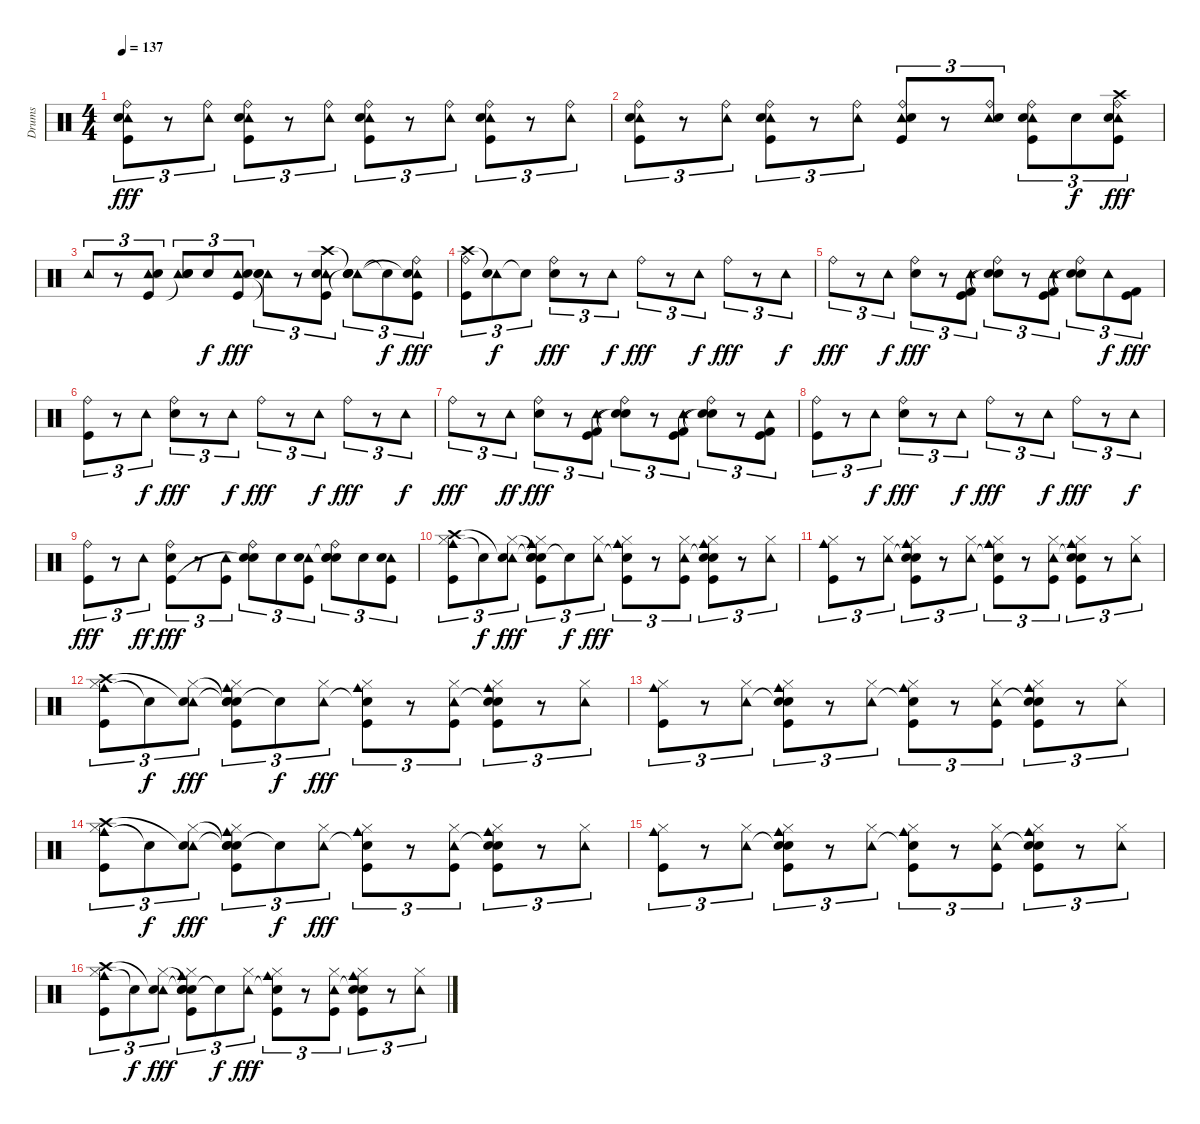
\track ("Drums" "Drums") {instrument percussion}
\staff {score}
\articulation defaults
\ts (4 4)
\tempo 137
\clef neutral
\ks c
("Tambourine (hit)" "Ride (bell)" "Electric Snare (hit)" "Kick (hit)").8{tu (3 2) dy fff} r.8{tu (3 2)} ("Tambourine (hit)" "Ride (bell)").8{tu (3 2)} ("Tambourine (hit)" "Ride (bell)" "Electric Snare (hit)" "Kick (hit)").8{tu (3 2)} r.8{tu (3 2)} ("Tambourine (hit)" "Ride (bell)").8{tu (3 2)} ("Tambourine (hit)" "Ride (bell)" "Electric Snare (hit)" "Kick (hit)").8{tu (3 2)} r.8{tu (3 2)} ("Tambourine (hit)" "Ride (bell)").8{tu (3 2)} ("Tambourine (hit)" "Ride (bell)" "Electric Snare (hit)" "Kick (hit)").8{tu (3 2)} r.8{tu (3 2)} ("Tambourine (hit)" "Ride (bell)").8{tu (3 2)} |
("Tambourine (hit)" "Ride (bell)" "Electric Snare (hit)" "Kick (hit)").8{tu (3 2)} r.8{tu (3 2)} ("Tambourine (hit)" "Ride (bell)").8{tu (3 2)} ("Tambourine (hit)" "Ride (bell)" "Electric Snare (hit)" "Kick (hit)").8{tu (3 2)} r.8{tu (3 2)} ("Tambourine (hit)" "Ride (bell)").8{tu (3 2)} ("Tambourine (hit)" "Ride (bell)" "Electric Snare (hit)" "Kick (hit)").8{tu (3 2)} r.8{tu (3 2)} ("Tambourine (hit)" "Ride (bell)" "Electric Snare (hit)").8{tu (3 2)} ("Tambourine (hit)" "Ride (bell)" "Electric Snare (hit)" "Kick (hit)").8{tu (3 2)} "Electric Snare (hit)".8{tu (3 2) dy f} ("Tambourine (hit)" "Crash high (hit)" "Ride (bell)" "Electric Snare (hit)" "Kick (hit)").8{tu (3 2) dy fff} |
"Tambourine (hit)".8{tu (3 2)} r.8{tu (3 2)} ("Tambourine (hit)" "Electric Snare (hit)" "Kick (hit)").8{tu (3 2)} ("Tambourine (hit)" "Electric Snare (hit)" "Snare (hit)"{t}).8{tu (3 2)} "Electric Snare (hit)".8{tu (3 2) dy f} ("Tambourine (hit)" "Electric Snare (hit)" "Kick (hit)").8{tu (3 2) dy fff} ("Tambourine (hit)" "Snare (hit)"{t} "Snare (hit)"{t}).8{tu (3 2)} r.8{tu (3 2)} ("Tambourine (hit)" "Crash high (hit)" "Electric Snare (hit)" "Kick (hit)").8{tu (3 2)} ("Tambourine (hit)" "Snare (hit)"{t} "Electric Snare (hit)" "Snare (hit)"{t}).8{tu (3 2)} "Snare (hit)"{t}.8{tu (3 2) dy f} ("Tambourine (hit)" "Ride (bell)" "Snare (hit)"{t} "Kick (hit)").8{tu (3 2) dy fff} |
("Ride (bell)" "Crash high (hit)" "Kick (hit)").8{tu (3 2)} ("Tambourine (hit)" "Snare (hit)"{t}).8{tu (3 2) dy f} "Snare (hit)"{t}.8{tu (3 2)} ("Ride (bell)" "Electric Snare (hit)").8{tu (3 2) dy fff} r.8{tu (3 2)} "Tambourine (hit)".8{tu (3 2) dy f} "Ride (bell)".8{tu (3 2) dy fff} r.8{tu (3 2)} "Tambourine (hit)".8{tu (3 2) dy f} "Ride (bell)".8{tu (3 2) dy fff} r.8{tu (3 2)} "Tambourine (hit)".8{tu (3 2) dy f} |
"Ride (bell)".8{tu (3 2) dy fff} r.8{tu (3 2)} "Tambourine (hit)".8{tu (3 2) dy f} ("Ride (bell)" "Electric Snare (hit)").8{tu (3 2) dy fff} r.8{tu (3 2)} ("Tambourine (hit)" "Kick (hit) 2" "Kick (hit)").8{tu (3 2)} ("Ride (bell)" "Snare (hit)"{t} "Snare (hit)"{t}).8{tu (3 2)} r.8{tu (3 2)} ("Tambourine (hit)" "Kick (hit) 2" "Kick (hit)").8{tu (3 2)} ("Ride (bell)" "Snare (hit)"{t} "Snare (hit)"{t}).8{tu (3 2)} "Tambourine (hit)".8{tu (3 2) dy f} ("Kick (hit) 2" "Kick (hit)").8{tu (3 2) dy fff} |
("Ride (bell)" "Kick (hit)").8{tu (3 2)} r.8{tu (3 2)} "Tambourine (hit)".8{tu (3 2) dy f} ("Ride (bell)" "Electric Snare (hit)").8{tu (3 2) dy fff} r.8{tu (3 2)} "Tambourine (hit)".8{tu (3 2) dy f} "Ride (bell)".8{tu (3 2) dy fff} r.8{tu (3 2)} "Tambourine (hit)".8{tu (3 2) dy f} "Ride (bell)".8{tu (3 2) dy fff} r.8{tu (3 2)} "Tambourine (hit)".8{tu (3 2) dy f} |
"Ride (bell)".8{tu (3 2) dy fff} r.8{tu (3 2)} "Tambourine (hit)".8{tu (3 2) dy ff} ("Ride (bell)" "Electric Snare (hit)").8{tu (3 2) dy fff} r.8{tu (3 2)} ("Tambourine (hit)" "Kick (hit) 2" "Kick (hit)").8{tu (3 2)} ("Ride (bell)" "Snare (hit)"{t} "Snare (hit)"{t}).8{tu (3 2)} r.8{tu (3 2)} ("Tambourine (hit)" "Kick (hit) 2" "Kick (hit)").8{tu (3 2)} ("Ride (bell)" "Snare (hit)"{t} "Snare (hit)"{t}).8{tu (3 2)} r.8{tu (3 2)} ("Tambourine (hit)" "Kick (hit) 2" "Kick (hit)").8{tu (3 2)} |
("Ride (bell)" "Kick (hit)").8{tu (3 2)} r.8{tu (3 2)} "Tambourine (hit)".8{tu (3 2) dy f} ("Ride (bell)" "Electric Snare (hit)").8{tu (3 2) dy fff} r.8{tu (3 2)} "Tambourine (hit)".8{tu (3 2) dy f} "Ride (bell)".8{tu (3 2) dy fff} r.8{tu (3 2)} "Tambourine (hit)".8{tu (3 2) dy f} "Ride (bell)".8{tu (3 2) dy fff} r.8{tu (3 2)} "Tambourine (hit)".8{tu (3 2) dy f} |
("Ride (bell)" "Kick (hit)").8{tu (3 2) dy fff} r.8{tu (3 2)} "Tambourine (hit)".8{tu (3 2) dy ff} ("Ride (bell)" "Electric Snare (hit)" "Kick (hit)").8{tu (3 2) dy fff} r.8{tu (3 2)} ("Tambourine (hit)" "Kick (hit)").8{tu (3 2)} ("Ride (bell)" "Electric Snare (hit)" "Snare (hit)"{t}).8{tu (3 2)} "Electric Snare (hit)".8{tu (3 2)} ("Tambourine (hit)" "Electric Snare (hit)" "Kick (hit)").8{tu (3 2)} ("Snare (hit)"{t} "Ride (bell)" "Electric Snare (hit)" "Snare (hit)").8{tu (3 2)} "Electric Snare (hit)".8{tu (3 2)} ("Tambourine (hit)" "Electric Snare (hit)" "Kick (hit)").8{tu (3 2)} |
("Cowbell medium (hit)" "Crash high (hit)" "Hi-Hat (closed)" "Kick (hit)").8{tu (3 2)} "Snare (hit)"{t}.8{tu (3 2) dy f} ("Tambourine (hit)" "Snare (hit)"{t} "Hi-Hat (closed)").8{tu (3 2) dy fff} ("Snare (hit)"{t} "Cowbell medium (hit)" "Snare (hit)"{t} "Hi-Hat (closed)" "Electric Snare (hit)" "Kick (hit)").8{tu (3 2)} "Snare (hit)"{t}.8{tu (3 2) dy f} ("Tambourine (hit)" "Hi-Hat (closed)").8{tu (3 2) dy fff} ("Snare (hit)"{t} "Cowbell medium (hit)" "Hi-Hat (closed)" "Kick (hit)").8{tu (3 2)} r.8{tu (3 2)} ("Tambourine (hit)" "Hi-Hat (closed)" "Kick (hit)").8{tu (3 2)} ("Snare (hit)"{t} "Cowbell medium (hit)" "Hi-Hat (closed)" "Electric Snare (hit)" "Kick (hit)").8{tu (3 2)} r.8{tu (3 2)} ("Tambourine (hit)" "Hi-Hat (closed)").8{tu (3 2)} |
("Cowbell medium (hit)" "Hi-Hat (closed)" "Kick (hit)").8{tu (3 2)} r.8{tu (3 2)} ("Tambourine (hit)" "Hi-Hat (closed)").8{tu (3 2)} ("Snare (hit)"{t} "Cowbell medium (hit)" "Hi-Hat (closed)" "Electric Snare (hit)" "Kick (hit)").8{tu (3 2)} r.8{tu (3 2)} ("Tambourine (hit)" "Hi-Hat (closed)").8{tu (3 2)} ("Snare (hit)"{t} "Cowbell medium (hit)" "Hi-Hat (closed)" "Kick (hit)").8{tu (3 2)} r.8{tu (3 2)} ("Tambourine (hit)" "Hi-Hat (closed)" "Kick (hit)").8{tu (3 2)} ("Snare (hit)"{t} "Cowbell medium (hit)" "Hi-Hat (closed)" "Electric Snare (hit)" "Kick (hit)").8{tu (3 2)} r.8{tu (3 2)} ("Tambourine (hit)" "Hi-Hat (closed)").8{tu (3 2)} |
("Cowbell medium (hit)" "Crash high (hit)" "Hi-Hat (closed)" "Kick (hit)").8{tu (3 2)} "Snare (hit)"{t}.8{tu (3 2) dy f} ("Tambourine (hit)" "Snare (hit)"{t} "Hi-Hat (closed)").8{tu (3 2) dy fff} ("Snare (hit)"{t} "Cowbell medium (hit)" "Snare (hit)"{t} "Hi-Hat (closed)" "Electric Snare (hit)" "Kick (hit)").8{tu (3 2)} "Snare (hit)"{t}.8{tu (3 2) dy f} ("Tambourine (hit)" "Hi-Hat (closed)").8{tu (3 2) dy fff} ("Snare (hit)"{t} "Cowbell medium (hit)" "Hi-Hat (closed)" "Kick (hit)").8{tu (3 2)} r.8{tu (3 2)} ("Tambourine (hit)" "Hi-Hat (closed)" "Kick (hit)").8{tu (3 2)} ("Snare (hit)"{t} "Cowbell medium (hit)" "Hi-Hat (closed)" "Electric Snare (hit)" "Kick (hit)").8{tu (3 2)} r.8{tu (3 2)} ("Tambourine (hit)" "Hi-Hat (closed)").8{tu (3 2)} |
("Cowbell medium (hit)" "Hi-Hat (closed)" "Kick (hit)").8{tu (3 2)} r.8{tu (3 2)} ("Tambourine (hit)" "Hi-Hat (closed)").8{tu (3 2)} ("Snare (hit)"{t} "Cowbell medium (hit)" "Hi-Hat (closed)" "Electric Snare (hit)" "Kick (hit)").8{tu (3 2)} r.8{tu (3 2)} ("Tambourine (hit)" "Hi-Hat (closed)").8{tu (3 2)} ("Snare (hit)"{t} "Cowbell medium (hit)" "Hi-Hat (closed)" "Kick (hit)").8{tu (3 2)} r.8{tu (3 2)} ("Tambourine (hit)" "Hi-Hat (closed)" "Kick (hit)").8{tu (3 2)} ("Snare (hit)"{t} "Cowbell medium (hit)" "Hi-Hat (closed)" "Electric Snare (hit)" "Kick (hit)").8{tu (3 2)} r.8{tu (3 2)} ("Tambourine (hit)" "Hi-Hat (closed)").8{tu (3 2)} |
("Cowbell medium (hit)" "Crash high (hit)" "Hi-Hat (closed)" "Kick (hit)").8{tu (3 2)} "Snare (hit)"{t}.8{tu (3 2) dy f} ("Tambourine (hit)" "Snare (hit)"{t} "Hi-Hat (closed)").8{tu (3 2) dy fff} ("Snare (hit)"{t} "Cowbell medium (hit)" "Snare (hit)"{t} "Hi-Hat (closed)" "Electric Snare (hit)" "Kick (hit)").8{tu (3 2)} "Snare (hit)"{t}.8{tu (3 2) dy f} ("Tambourine (hit)" "Hi-Hat (closed)").8{tu (3 2) dy fff} ("Snare (hit)"{t} "Cowbell medium (hit)" "Hi-Hat (closed)" "Kick (hit)").8{tu (3 2)} r.8{tu (3 2)} ("Tambourine (hit)" "Hi-Hat (closed)" "Kick (hit)").8{tu (3 2)} ("Snare (hit)"{t} "Cowbell medium (hit)" "Hi-Hat (closed)" "Electric Snare (hit)" "Kick (hit)").8{tu (3 2)} r.8{tu (3 2)} ("Tambourine (hit)" "Hi-Hat (closed)").8{tu (3 2)} |
("Cowbell medium (hit)" "Hi-Hat (closed)" "Kick (hit)").8{tu (3 2)} r.8{tu (3 2)} ("Tambourine (hit)" "Hi-Hat (closed)").8{tu (3 2)} ("Snare (hit)"{t} "Cowbell medium (hit)" "Hi-Hat (closed)" "Electric Snare (hit)" "Kick (hit)").8{tu (3 2)} r.8{tu (3 2)} ("Tambourine (hit)" "Hi-Hat (closed)").8{tu (3 2)} ("Snare (hit)"{t} "Cowbell medium (hit)" "Hi-Hat (closed)" "Kick (hit)").8{tu (3 2)} r.8{tu (3 2)} ("Tambourine (hit)" "Hi-Hat (closed)" "Kick (hit)").8{tu (3 2)} ("Snare (hit)"{t} "Cowbell medium (hit)" "Hi-Hat (closed)" "Electric Snare (hit)" "Kick (hit)").8{tu (3 2)} r.8{tu (3 2)} ("Tambourine (hit)" "Hi-Hat (closed)").8{tu (3 2)} |
("Cowbell medium (hit)" "Crash high (hit)" "Hi-Hat (closed)" "Kick (hit)").8{tu (3 2)} "Snare (hit)"{t}.8{tu (3 2) dy f} ("Tambourine (hit)" "Snare (hit)"{t} "Hi-Hat (closed)").8{tu (3 2) dy fff} ("Snare (hit)"{t} "Cowbell medium (hit)" "Snare (hit)"{t} "Hi-Hat (closed)" "Electric Snare (hit)" "Kick (hit)").8{tu (3 2)} "Snare (hit)"{t}.8{tu (3 2) dy f} ("Tambourine (hit)" "Hi-Hat (closed)").8{tu (3 2) dy fff} ("Snare (hit)"{t} "Cowbell medium (hit)" "Hi-Hat (closed)" "Kick (hit)").8{tu (3 2)} r.8{tu (3 2)} ("Tambourine (hit)" "Hi-Hat (closed)" "Kick (hit)").8{tu (3 2)} ("Snare (hit)"{t} "Cowbell medium (hit)" "Hi-Hat (closed)" "Electric Snare (hit)" "Kick (hit)").8{tu (3 2)} r.8{tu (3 2)} ("Tambourine (hit)" "Hi-Hat (closed)").8{tu (3 2)}
